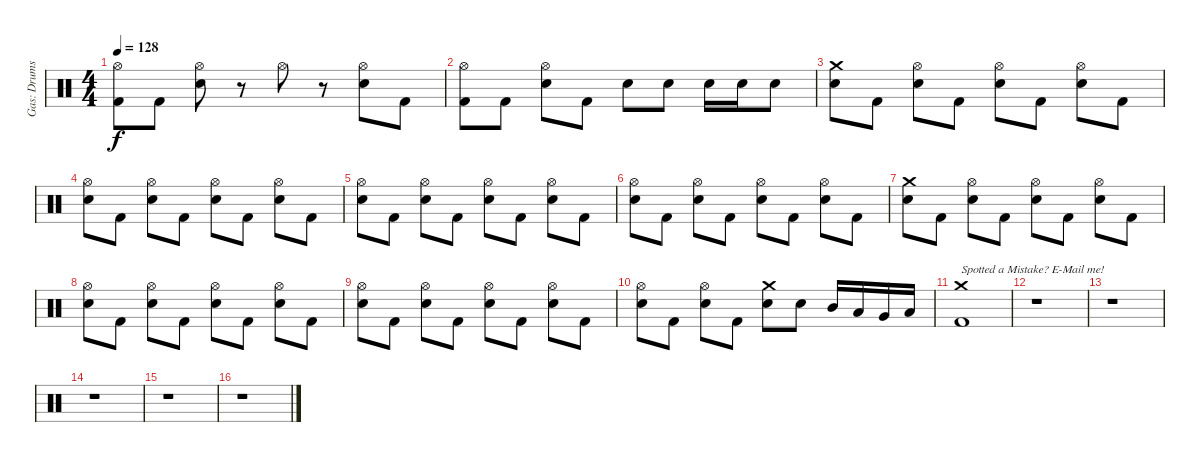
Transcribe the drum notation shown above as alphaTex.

\track ("Gas: Drums" "Gas: Drums") {instrument percussion}
\staff {score}
\articulation defaults
\ts (4 4)
\tempo 128
\clef neutral
\ks c
("Hi-Hat (open)" "Kick (hit) 2").8{dy f} "Kick (hit) 2".8 ("Hi-Hat (open)" "Electric Snare (hit)").8 r.8 "Hi-Hat (open)".8 r.8 ("Hi-Hat (open)" "Electric Snare (hit)").8 "Kick (hit) 2".8 |
("Hi-Hat (open)" "Kick (hit) 2").8 "Kick (hit) 2".8 ("Hi-Hat (open)" "Electric Snare (hit)").8 "Kick (hit) 2".8 "Electric Snare (hit)".8 "Electric Snare (hit)".8 "Electric Snare (hit)".16 "Electric Snare (hit)".16 "Electric Snare (hit)".8 |
("Crash medium (hit)" "Electric Snare (hit)").8 "Kick (hit) 2".8 ("Hi-Hat (open)" "Electric Snare (hit)").8 "Kick (hit) 2".8 ("Hi-Hat (open)" "Electric Snare (hit)").8 "Kick (hit) 2".8 ("Hi-Hat (open)" "Electric Snare (hit)").8 "Kick (hit) 2".8 |
("Hi-Hat (open)" "Electric Snare (hit)").8 "Kick (hit) 2".8 ("Hi-Hat (open)" "Electric Snare (hit)").8 "Kick (hit) 2".8 ("Hi-Hat (open)" "Electric Snare (hit)").8 "Kick (hit) 2".8 ("Hi-Hat (open)" "Electric Snare (hit)").8 "Kick (hit) 2".8 |
("Hi-Hat (open)" "Electric Snare (hit)").8 "Kick (hit) 2".8 ("Hi-Hat (open)" "Electric Snare (hit)").8 "Kick (hit) 2".8 ("Hi-Hat (open)" "Electric Snare (hit)").8 "Kick (hit) 2".8 ("Hi-Hat (open)" "Electric Snare (hit)").8 "Kick (hit) 2".8 |
("Hi-Hat (open)" "Electric Snare (hit)").8 "Kick (hit) 2".8 ("Hi-Hat (open)" "Electric Snare (hit)").8 "Kick (hit) 2".8 ("Hi-Hat (open)" "Electric Snare (hit)").8 "Kick (hit) 2".8 ("Hi-Hat (open)" "Electric Snare (hit)").8 "Kick (hit) 2".8 |
("Crash medium (hit)" "Electric Snare (hit)").8 "Kick (hit) 2".8 ("Hi-Hat (open)" "Electric Snare (hit)").8 "Kick (hit) 2".8 ("Hi-Hat (open)" "Electric Snare (hit)").8 "Kick (hit) 2".8 ("Hi-Hat (open)" "Electric Snare (hit)").8 "Kick (hit) 2".8 |
("Hi-Hat (open)" "Electric Snare (hit)").8 "Kick (hit) 2".8 ("Hi-Hat (open)" "Electric Snare (hit)").8 "Kick (hit) 2".8 ("Hi-Hat (open)" "Electric Snare (hit)").8 "Kick (hit) 2".8 ("Hi-Hat (open)" "Electric Snare (hit)").8 "Kick (hit) 2".8 |
("Hi-Hat (open)" "Electric Snare (hit)").8 "Kick (hit) 2".8 ("Hi-Hat (open)" "Electric Snare (hit)").8 "Kick (hit) 2".8 ("Hi-Hat (open)" "Electric Snare (hit)").8 "Kick (hit) 2".8 ("Hi-Hat (open)" "Electric Snare (hit)").8 "Kick (hit) 2".8 |
("Hi-Hat (open)" "Electric Snare (hit)").8 "Kick (hit) 2".8 ("Hi-Hat (open)" "Electric Snare (hit)").8 "Kick (hit) 2".8 ("Crash medium (hit)" "Electric Snare (hit)").8 "Electric Snare (hit)".8 "Mid Tom (hit)".16 "Low Tom (hit)".16 "Very Low Tom (hit)".16 "Low Floor Tom (hit)".16 |
("Crash medium (hit)" "Kick (hit) 2").1{txt "Spotted a Mistake? E-Mail me!"} |
r.1 |
r.1 |
r.1 |
r.1 |
r.1
